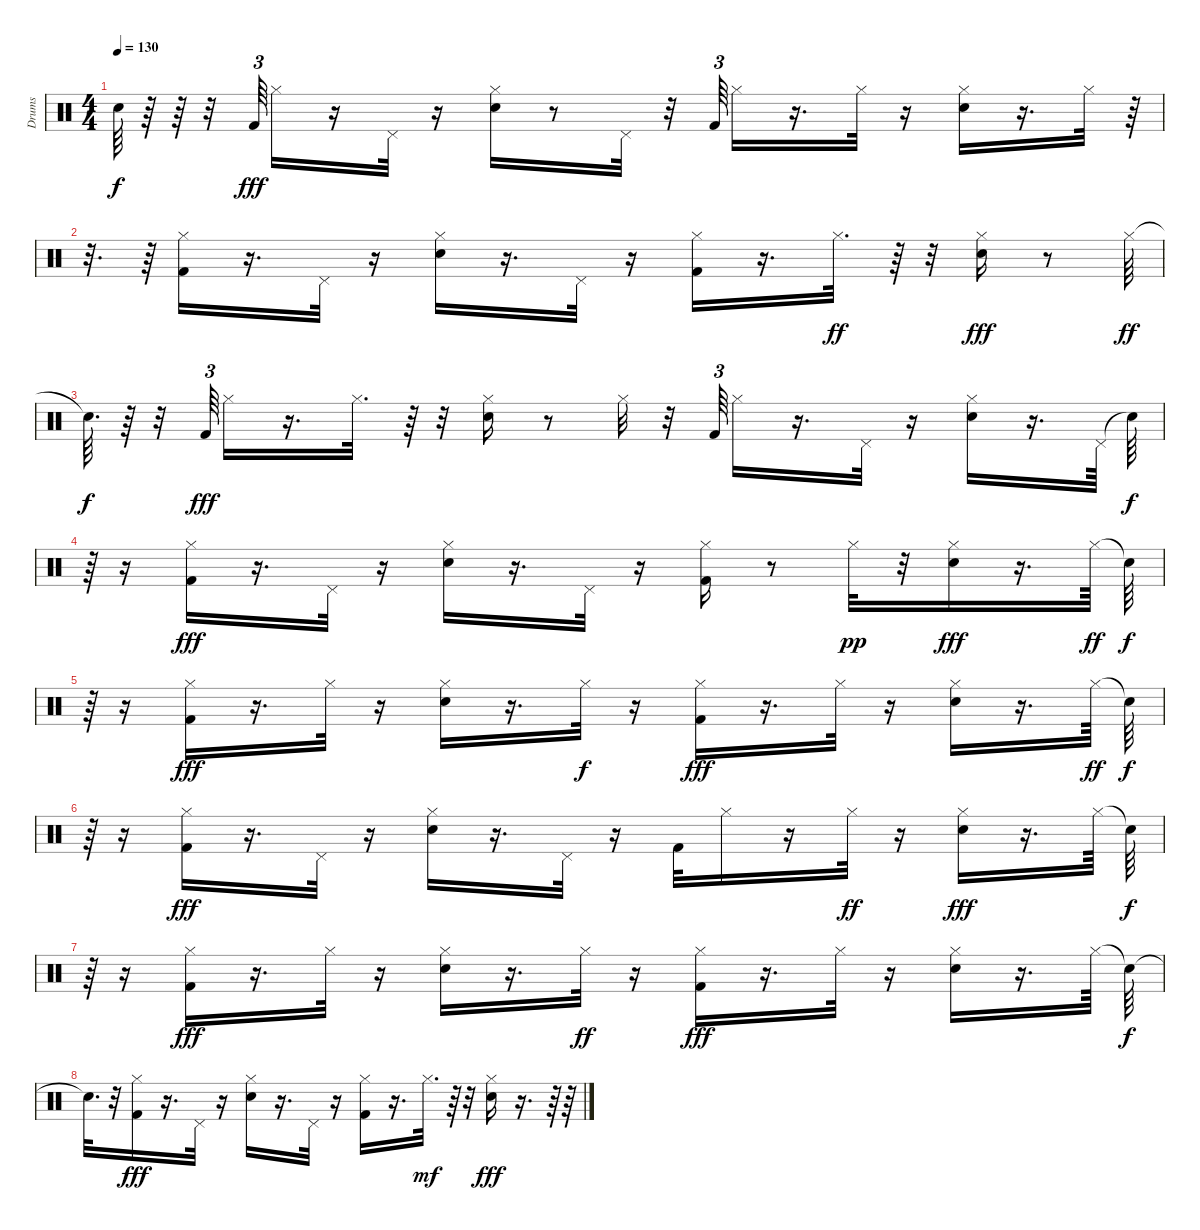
\track ("Drums" "Drums") {instrument percussion}
\staff {score}
\articulation defaults
\ts (4 4)
\tempo 130
\clef neutral
\ks c "Snare (hit)"{t}.64{dy f}
r.64 r.64 r.32 "Kick (hit) 2".64{tu (3 2) dy fff} "Hi-Hat (closed)".16 r.16 "Pedal Hi-Hat (hit)".32 r.16 ("Electric Snare (hit)" "Hi-Hat (closed)").16 r.8 "Pedal Hi-Hat (hit)".32 r.32 "Kick (hit) 2".64{tu (3 2)} "Hi-Hat (closed)".16 r.16{d} "Hi-Hat (closed)".32 r.16 ("Electric Snare (hit)" "Hi-Hat (closed)").16 r.16{d} "Hi-Hat (closed)".32 r.64 |
r.32{d} r.64 ("Kick (hit) 2" "Hi-Hat (closed)").16 r.16{d} "Pedal Hi-Hat (hit)".32 r.16 ("Electric Snare (hit)" "Hi-Hat (closed)").16 r.16{d} "Pedal Hi-Hat (hit)".32 r.16 ("Kick (hit) 2" "Hi-Hat (closed)").16 r.16{d} "Hi-Hat (closed)".32{d dy ff} r.64 r.32 ("Electric Snare (hit)" "Hi-Hat (closed)").16{dy fff} r.8 "Hi-Hat (closed)".64{dy ff} |
"Snare (hit)"{t}.64{d dy f} r.64 r.32 "Kick (hit) 2".64{tu (3 2) dy fff} "Hi-Hat (closed)".16 r.16{d} "Hi-Hat (closed)".32{d} r.64 r.32 ("Electric Snare (hit)" "Hi-Hat (closed)").16 r.8 "Hi-Hat (closed)".32 r.32 "Kick (hit) 2".64{tu (3 2)} "Hi-Hat (closed)".16 r.16{d} "Pedal Hi-Hat (hit)".32 r.16 ("Hi-Hat (closed)" "Electric Snare (hit)").16 r.16{d} "Pedal Hi-Hat (hit)".64 "Snare (hit)"{t}.64{dy f} |
r.64 r.16 ("Kick (hit) 2" "Hi-Hat (closed)").16{dy fff} r.16{d} "Pedal Hi-Hat (hit)".32 r.16 ("Electric Snare (hit)" "Hi-Hat (closed)").16 r.16{d} "Pedal Hi-Hat (hit)".32 r.16 ("Kick (hit) 2" "Hi-Hat (closed)").16 r.8 "Hi-Hat (closed)".32{dy pp} r.32 ("Electric Snare (hit)" "Hi-Hat (closed)").16{dy fff} r.16{d} "Hi-Hat (closed)".64{dy ff} "Snare (hit)"{t}.64{dy f} |
r.64 r.16 ("Kick (hit) 2" "Hi-Hat (closed)").16{dy fff} r.16{d} "Hi-Hat (closed)".32 r.16 ("Electric Snare (hit)" "Hi-Hat (closed)").16 r.16{d} "Hi-Hat (closed)".32{dy f} r.16 ("Kick (hit) 2" "Hi-Hat (closed)").16{dy fff} r.16{d} "Hi-Hat (closed)".32 r.16 ("Electric Snare (hit)" "Hi-Hat (closed)").16 r.16{d} "Hi-Hat (closed)".64{dy ff} "Snare (hit)"{t}.64{dy f} |
r.64 r.16 ("Kick (hit) 2" "Hi-Hat (closed)").16{dy fff} r.16{d} "Pedal Hi-Hat (hit)".32 r.16 ("Electric Snare (hit)" "Hi-Hat (closed)").16 r.16{d} "Pedal Hi-Hat (hit)".32 r.16 "Kick (hit) 2".32 "Hi-Hat (closed)".16 r.16 "Hi-Hat (closed)".32{dy ff} r.16 ("Electric Snare (hit)" "Hi-Hat (closed)").16{dy fff} r.16{d} "Hi-Hat (closed)".64 "Snare (hit)"{t}.64{dy f} |
r.64 r.16 ("Kick (hit) 2" "Hi-Hat (closed)").16{dy fff} r.16{d} "Hi-Hat (closed)".32 r.16 ("Electric Snare (hit)" "Hi-Hat (closed)").16 r.16{d} "Hi-Hat (closed)".32{dy ff} r.16 ("Kick (hit) 2" "Hi-Hat (closed)").16{dy fff} r.16{d} "Hi-Hat (closed)".32 r.16 ("Hi-Hat (closed)" "Electric Snare (hit)").16 r.16{d} "Hi-Hat (closed)".64 "Snare (hit)"{t}.64{dy f} |
"Snare (hit)"{t}.32{d} r.32 ("Kick (hit) 2" "Hi-Hat (closed)").16{dy fff} r.16{d} "Pedal Hi-Hat (hit)".32 r.16 ("Hi-Hat (closed)" "Electric Snare (hit)").16 r.16{d} "Pedal Hi-Hat (hit)".32 r.16 ("Kick (hit) 2" "Hi-Hat (closed)").16 r.16{d} "Hi-Hat (closed)".32{d dy mf} r.64 r.32 ("Electric Snare (hit)" "Hi-Hat (closed)").16{dy fff} r.16{d} r.64 r.64
